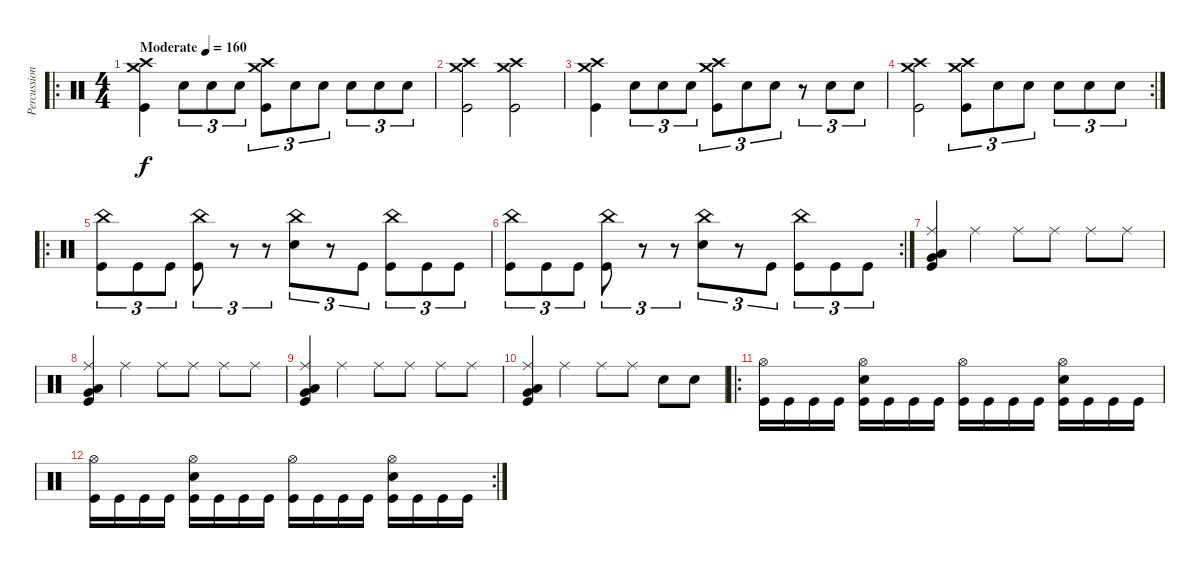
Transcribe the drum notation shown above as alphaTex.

\track ("Percussion" "Percussion") {instrument percussion}
\staff {score}
\articulation defaults
\ro
\ts (4 4)
\tempo (160 "Moderate")
\clef neutral
\ks c
("Crash medium (hit)" "Crash high (hit)" "Kick (hit)").4{dy f} "Snare (hit) 2".8{tu (3 2)} "Snare (hit) 2".8{tu (3 2)} "Snare (hit) 2".8{tu (3 2)} ("Crash medium (hit)" "Crash high (hit)" "Kick (hit)").8{tu (3 2)} "Snare (hit) 2".8{tu (3 2)} "Snare (hit) 2".8{tu (3 2)} "Snare (hit) 2".8{tu (3 2)} "Snare (hit) 2".8{tu (3 2)} "Snare (hit) 2".8{tu (3 2)} |
("Crash medium (hit)" "Crash high (hit)" "Kick (hit)").2 ("Crash medium (hit)" "Crash high (hit)" "Kick (hit)").2 |
("Crash medium (hit)" "Crash high (hit)" "Kick (hit)").4 "Snare (hit) 2".8{tu (3 2)} "Snare (hit) 2".8{tu (3 2)} "Snare (hit) 2".8{tu (3 2)} ("Crash medium (hit)" "Crash high (hit)" "Kick (hit)").8{tu (3 2)} "Snare (hit) 2".8{tu (3 2)} "Snare (hit) 2".8{tu (3 2)} r.8{tu (3 2)} "Snare (hit) 2".8{tu (3 2)} "Snare (hit) 2".8{tu (3 2)} |
\rc 2
("Crash medium (hit)" "Crash high (hit)" "Kick (hit)").2 ("Crash medium (hit)" "Crash high (hit)" "Kick (hit)").8{tu (3 2)} "Snare (hit) 2".8{tu (3 2)} "Snare (hit) 2".8{tu (3 2)} "Snare (hit) 2".8{tu (3 2)} "Snare (hit) 2".8{tu (3 2)} "Snare (hit) 2".8{tu (3 2)} |
\ro
("China (hit)" "Kick (hit)").8{tu (3 2)} "Kick (hit)".8{tu (3 2)} "Kick (hit)".8{tu (3 2)} ("China (hit)" "Kick (hit)").8{tu (3 2)} r.8{tu (3 2)} r.8{tu (3 2)} ("China (hit)" "Snare (hit) 2").8{tu (3 2)} r.8{tu (3 2)} "Kick (hit)".8{tu (3 2)} ("China (hit)" "Kick (hit)").8{tu (3 2)} "Kick (hit)".8{tu (3 2)} "Kick (hit)".8{tu (3 2)} |
\rc 2
("China (hit)" "Kick (hit)").8{tu (3 2)} "Kick (hit)".8{tu (3 2)} "Kick (hit)".8{tu (3 2)} ("China (hit)" "Kick (hit)").8{tu (3 2)} r.8{tu (3 2)} r.8{tu (3 2)} ("China (hit)" "Snare (hit) 2").8{tu (3 2)} r.8{tu (3 2)} "Kick (hit)".8{tu (3 2)} ("China (hit)" "Kick (hit)").8{tu (3 2)} "Kick (hit)".8{tu (3 2)} "Kick (hit)".8{tu (3 2)} |
("Ride (middle)" "Very Low Tom (hit)" "Low Floor Tom (hit)" "Kick (hit)").4 "Ride (middle)".4 "Ride (middle)".8 "Ride (middle)".8 "Ride (middle)".8 "Ride (middle)".8 |
("Ride (middle)" "Very Low Tom (hit)" "Low Floor Tom (hit)" "Kick (hit)").4 "Ride (middle)".4 "Ride (middle)".8 "Ride (middle)".8 "Ride (middle)".8 "Ride (middle)".8 |
("Ride (middle)" "Very Low Tom (hit)" "Low Floor Tom (hit)" "Kick (hit)").4 "Ride (middle)".4 "Ride (middle)".8 "Ride (middle)".8 "Ride (middle)".8 "Ride (middle)".8 |
("Ride (middle)" "Very Low Tom (hit)" "Low Floor Tom (hit)" "Kick (hit)").4 "Ride (middle)".4 "Ride (middle)".8 "Ride (middle)".8 "Snare (hit) 2".8 "Snare (hit) 2".8 |
\ro
("Hi-Hat (open)" "Kick (hit)").16 "Kick (hit)".16 "Kick (hit)".16 "Kick (hit)".16 ("Hi-Hat (open)" "Snare (hit) 2" "Kick (hit)").16 "Kick (hit)".16 "Kick (hit)".16 "Kick (hit)".16 ("Hi-Hat (open)" "Kick (hit)").16 "Kick (hit)".16 "Kick (hit)".16 "Kick (hit)".16 ("Hi-Hat (open)" "Snare (hit) 2" "Kick (hit)").16 "Kick (hit)".16 "Kick (hit)".16 "Kick (hit)".16 |
\rc 2
("Hi-Hat (open)" "Kick (hit)").16 "Kick (hit)".16 "Kick (hit)".16 "Kick (hit)".16 ("Hi-Hat (open)" "Snare (hit) 2" "Kick (hit)").16 "Kick (hit)".16 "Kick (hit)".16 "Kick (hit)".16 ("Hi-Hat (open)" "Kick (hit)").16 "Kick (hit)".16 "Kick (hit)".16 "Kick (hit)".16 ("Hi-Hat (open)" "Snare (hit) 2" "Kick (hit)").16 "Kick (hit)".16 "Kick (hit)".16 "Kick (hit)".16
